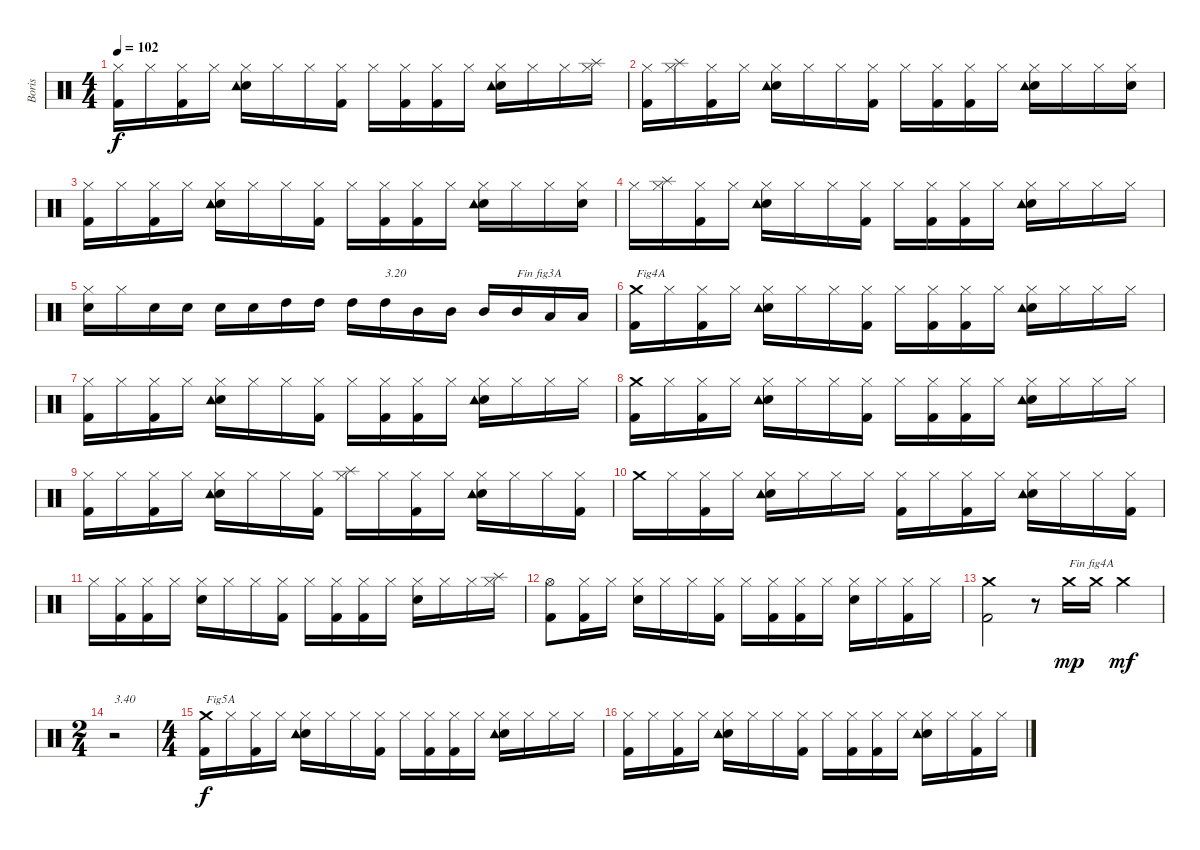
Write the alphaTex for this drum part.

\track ("Boris" "Boris") {instrument percussion}
\staff {score}
\articulation defaults
\ts (4 4)
\tempo 102
\clef neutral
\ks c
("Kick (hit) 2" "Hi-Hat (closed)").16{dy f} "Hi-Hat (closed)".16 ("Kick (hit) 2" "Hi-Hat (closed)").16 "Hi-Hat (closed)".16 ("Electric Snare (hit)" "Tambourine (hit)" "Hi-Hat (closed)").16 "Hi-Hat (closed)".16 "Hi-Hat (closed)".16 ("Kick (hit) 2" "Hi-Hat (closed)").16 "Hi-Hat (closed)".16 ("Kick (hit) 2" "Hi-Hat (closed)").16 ("Kick (hit) 2" "Hi-Hat (closed)").16 "Hi-Hat (closed)".16 ("Electric Snare (hit)" "Tambourine (hit)" "Hi-Hat (closed)").16 "Hi-Hat (closed)".16 "Hi-Hat (closed)".16 ("Hi-Hat (closed)" "Splash (hit)").16 |
("Kick (hit) 2" "Hi-Hat (closed)").16 ("Hi-Hat (closed)" "Splash (hit)").16 ("Kick (hit) 2" "Hi-Hat (closed)").16 "Hi-Hat (closed)".16 ("Electric Snare (hit)" "Tambourine (hit)" "Hi-Hat (closed)").16 "Hi-Hat (closed)".16 "Hi-Hat (closed)".16 ("Kick (hit) 2" "Hi-Hat (closed)").16 "Hi-Hat (closed)".16 ("Kick (hit) 2" "Hi-Hat (closed)").16 ("Kick (hit) 2" "Hi-Hat (closed)").16 "Hi-Hat (closed)".16 ("Electric Snare (hit)" "Tambourine (hit)" "Hi-Hat (closed)").16 "Hi-Hat (closed)".16 "Hi-Hat (closed)".16 ("Electric Snare (hit)" "Hi-Hat (closed)").16 |
("Kick (hit) 2" "Hi-Hat (closed)").16 "Hi-Hat (closed)".16 ("Kick (hit) 2" "Hi-Hat (closed)").16 "Hi-Hat (closed)".16 ("Electric Snare (hit)" "Tambourine (hit)" "Hi-Hat (closed)").16 "Hi-Hat (closed)".16 "Hi-Hat (closed)".16 ("Kick (hit) 2" "Hi-Hat (closed)").16 "Hi-Hat (closed)".16 ("Kick (hit) 2" "Hi-Hat (closed)").16 ("Kick (hit) 2" "Hi-Hat (closed)").16 "Hi-Hat (closed)".16 ("Electric Snare (hit)" "Tambourine (hit)" "Hi-Hat (closed)").16 "Hi-Hat (closed)".16 "Hi-Hat (closed)".16 ("Electric Snare (hit)" "Hi-Hat (closed)").16 |
"Hi-Hat (closed)".16 ("Hi-Hat (closed)" "Splash (hit)").16 ("Kick (hit) 2" "Hi-Hat (closed)").16 "Hi-Hat (closed)".16 ("Electric Snare (hit)" "Tambourine (hit)" "Hi-Hat (closed)").16 "Hi-Hat (closed)".16 "Hi-Hat (closed)".16 ("Kick (hit) 2" "Hi-Hat (closed)").16 "Hi-Hat (closed)".16 ("Kick (hit) 2" "Hi-Hat (closed)").16 ("Kick (hit) 2" "Hi-Hat (closed)").16 "Hi-Hat (closed)".16 ("Electric Snare (hit)" "Tambourine (hit)" "Hi-Hat (closed)").16 "Hi-Hat (closed)".16 "Hi-Hat (closed)".16 "Hi-Hat (closed)".16 |
("Electric Snare (hit)" "Hi-Hat (closed)").16 "Hi-Hat (closed)".16 "Electric Snare (hit)".16 "Electric Snare (hit)".16 "Electric Snare (hit)".16 "Electric Snare (hit)".16 "High Tom (hit)".16 "High Tom (hit)".16 "High Tom (hit)".16 "High Tom (hit)".16{txt "3.20"} "Mid Tom (hit)".16 "Mid Tom (hit)".16 "Mid Tom (hit)".16 "Mid Tom (hit)".16{txt "Fin fig3A"} "Low Tom (hit)".16 "Low Tom (hit)".16 |
("Kick (hit) 2" "Crash medium (hit)").16{txt "Fig4A"} "Hi-Hat (closed)".16 ("Kick (hit) 2" "Hi-Hat (closed)").16 "Hi-Hat (closed)".16 ("Electric Snare (hit)" "Tambourine (hit)" "Hi-Hat (closed)").16 "Hi-Hat (closed)".16 "Hi-Hat (closed)".16 ("Kick (hit) 2" "Hi-Hat (closed)").16 "Hi-Hat (closed)".16 ("Kick (hit) 2" "Hi-Hat (closed)").16 ("Kick (hit) 2" "Hi-Hat (closed)").16 "Hi-Hat (closed)".16 ("Electric Snare (hit)" "Tambourine (hit)" "Hi-Hat (closed)").16 "Hi-Hat (closed)".16 "Hi-Hat (closed)".16 "Hi-Hat (closed)".16 |
("Kick (hit) 2" "Hi-Hat (closed)").16 "Hi-Hat (closed)".16 ("Kick (hit) 2" "Hi-Hat (closed)").16 "Hi-Hat (closed)".16 ("Electric Snare (hit)" "Tambourine (hit)" "Hi-Hat (closed)").16 "Hi-Hat (closed)".16 "Hi-Hat (closed)".16 ("Kick (hit) 2" "Hi-Hat (closed)").16 "Hi-Hat (closed)".16 ("Kick (hit) 2" "Hi-Hat (closed)").16 ("Kick (hit) 2" "Hi-Hat (closed)").16 "Hi-Hat (closed)".16 ("Electric Snare (hit)" "Tambourine (hit)" "Hi-Hat (closed)").16 "Hi-Hat (closed)".16 "Hi-Hat (closed)".16 "Hi-Hat (closed)".16 |
("Kick (hit) 2" "Crash medium (hit)").16 "Hi-Hat (closed)".16 ("Kick (hit) 2" "Hi-Hat (closed)").16 "Hi-Hat (closed)".16 ("Electric Snare (hit)" "Tambourine (hit)" "Hi-Hat (closed)").16 "Hi-Hat (closed)".16 "Hi-Hat (closed)".16 ("Kick (hit) 2" "Hi-Hat (closed)").16 "Hi-Hat (closed)".16 ("Kick (hit) 2" "Hi-Hat (closed)").16 ("Kick (hit) 2" "Hi-Hat (closed)").16 "Hi-Hat (closed)".16 ("Electric Snare (hit)" "Tambourine (hit)" "Hi-Hat (closed)").16 "Hi-Hat (closed)".16 "Hi-Hat (closed)".16 "Hi-Hat (closed)".16 |
("Kick (hit) 2" "Hi-Hat (closed)").16 "Hi-Hat (closed)".16 ("Kick (hit) 2" "Hi-Hat (closed)").16 "Hi-Hat (closed)".16 ("Electric Snare (hit)" "Tambourine (hit)" "Hi-Hat (closed)").16 "Hi-Hat (closed)".16 "Hi-Hat (closed)".16 ("Kick (hit) 2" "Hi-Hat (closed)").16 ("Hi-Hat (closed)" "Splash (hit)").16 "Hi-Hat (closed)".16 ("Kick (hit) 2" "Hi-Hat (closed)").16 "Hi-Hat (closed)".16 ("Electric Snare (hit)" "Tambourine (hit)" "Hi-Hat (closed)").16 "Hi-Hat (closed)".16 "Hi-Hat (closed)".16 ("Kick (hit) 2" "Hi-Hat (closed)").16 |
"Crash medium (hit)".16 "Hi-Hat (closed)".16 ("Kick (hit) 2" "Hi-Hat (closed)").16 "Hi-Hat (closed)".16 ("Electric Snare (hit)" "Tambourine (hit)" "Hi-Hat (closed)").16 "Hi-Hat (closed)".16 "Hi-Hat (closed)".16 "Hi-Hat (closed)".16 ("Kick (hit) 2" "Hi-Hat (closed)").16 "Hi-Hat (closed)".16 ("Kick (hit) 2" "Hi-Hat (closed)").16 "Hi-Hat (closed)".16 ("Electric Snare (hit)" "Tambourine (hit)" "Hi-Hat (closed)").16 "Hi-Hat (closed)".16 "Hi-Hat (closed)".16 ("Kick (hit) 2" "Hi-Hat (closed)").16 |
"Hi-Hat (closed)".16 ("Kick (hit) 2" "Hi-Hat (closed)").16 ("Kick (hit) 2" "Hi-Hat (closed)").16 "Hi-Hat (closed)".16 ("Electric Snare (hit)" "Hi-Hat (closed)").16 "Hi-Hat (closed)".16 "Hi-Hat (closed)".16 ("Kick (hit) 2" "Hi-Hat (closed)").16 "Hi-Hat (closed)".16 ("Kick (hit) 2" "Hi-Hat (closed)").16 ("Kick (hit) 2" "Hi-Hat (closed)").16 "Hi-Hat (closed)".16 ("Electric Snare (hit)" "Hi-Hat (closed)").16 "Hi-Hat (closed)".16 "Hi-Hat (closed)".16 ("Hi-Hat (closed)" "Splash (hit)").16 |
("Kick (hit) 2" "Hi-Hat (open)").8 ("Kick (hit) 2" "Hi-Hat (closed)").16 "Hi-Hat (closed)".16 ("Electric Snare (hit)" "Hi-Hat (closed)").16 "Hi-Hat (closed)".16 "Hi-Hat (closed)".16 ("Kick (hit) 2" "Hi-Hat (closed)").16 "Hi-Hat (closed)".16 ("Kick (hit) 2" "Hi-Hat (closed)").16 ("Kick (hit) 2" "Hi-Hat (closed)").16 "Hi-Hat (closed)".16 ("Electric Snare (hit)" "Hi-Hat (closed)").16 "Hi-Hat (closed)".16 ("Kick (hit) 2" "Hi-Hat (closed)").16 "Hi-Hat (closed)".16 |
("Kick (hit) 2" "Crash medium (hit)").2 r.8 "Crash medium (hit)".16{txt "Fin fig4A" dy mp} "Crash medium (hit)".16 "Crash medium (hit)".4{dy mf} |
\ts (2 4)
r.2{txt "3.40"} |
\ts (4 4)
("Kick (hit) 2" "Crash medium (hit)").16{txt "Fig5A" dy f} "Hi-Hat (closed)".16 ("Kick (hit) 2" "Hi-Hat (closed)").16 "Hi-Hat (closed)".16 ("Electric Snare (hit)" "Tambourine (hit)" "Hi-Hat (closed)").16 "Hi-Hat (closed)".16 "Hi-Hat (closed)".16 ("Kick (hit) 2" "Hi-Hat (closed)").16 "Hi-Hat (closed)".16 ("Kick (hit) 2" "Hi-Hat (closed)").16 ("Kick (hit) 2" "Hi-Hat (closed)").16 "Hi-Hat (closed)".16 ("Electric Snare (hit)" "Tambourine (hit)" "Hi-Hat (closed)").16 "Hi-Hat (closed)".16 "Hi-Hat (closed)".16 "Hi-Hat (closed)".16 |
("Kick (hit) 2" "Hi-Hat (closed)").16 "Hi-Hat (closed)".16 ("Kick (hit) 2" "Hi-Hat (closed)").16 "Hi-Hat (closed)".16 ("Electric Snare (hit)" "Tambourine (hit)" "Hi-Hat (closed)").16 "Hi-Hat (closed)".16 "Hi-Hat (closed)".16 ("Kick (hit) 2" "Hi-Hat (closed)").16 "Hi-Hat (closed)".16 ("Kick (hit) 2" "Hi-Hat (closed)").16 ("Kick (hit) 2" "Hi-Hat (closed)").16 "Hi-Hat (closed)".16 ("Electric Snare (hit)" "Tambourine (hit)" "Hi-Hat (closed)").16 "Hi-Hat (closed)".16 ("Kick (hit) 2" "Hi-Hat (closed)").16 "Hi-Hat (closed)".16
